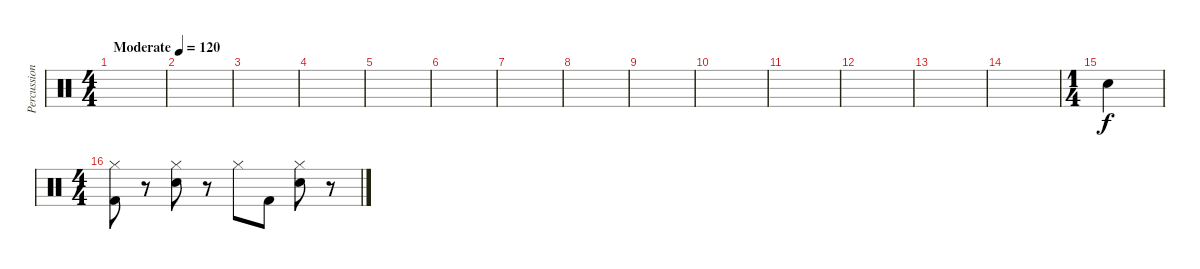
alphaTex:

\track ("Percussion" "Percussion") {instrument percussion}
\staff {score}
\articulation defaults
\ts (4 4)
\tempo (120 "Moderate")
\clef neutral
\ks c
|
|
|
|
|
|
|
|
|
|
|
|
|
|
\ts (1 4)
"Hand Clap (hit)".4 |
\ts (4 4)
("Hi-Hat (closed)" "Kick (hit) 2").8 r.8 ("Hi-Hat (closed)" "Hand Clap (hit)").8 r.8 "Hi-Hat (closed)".8 "Kick (hit) 2".8 ("Hi-Hat (closed)" "Hand Clap (hit)").8 r.8
